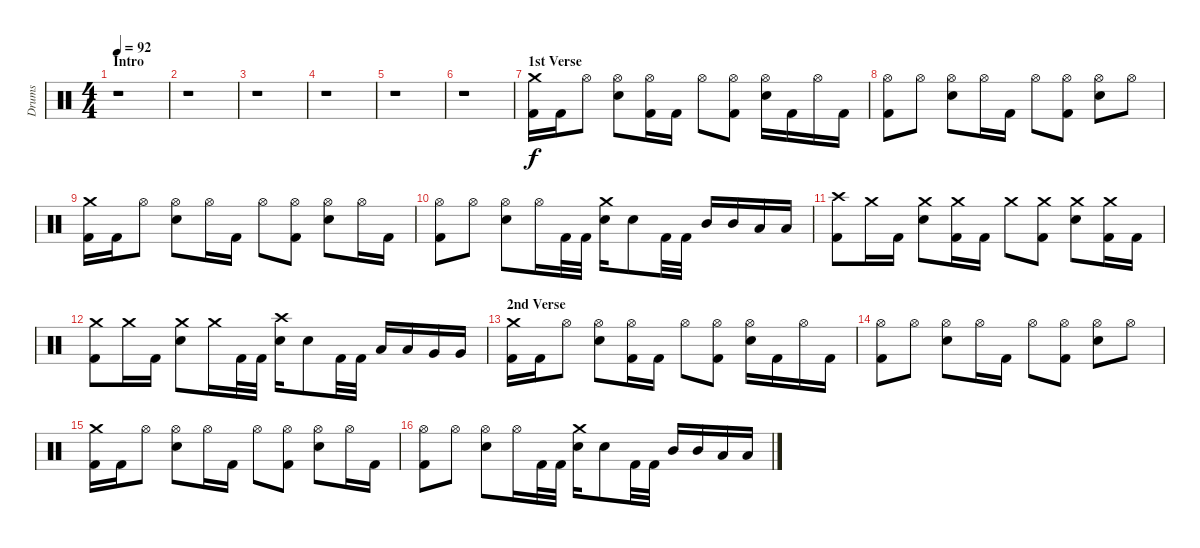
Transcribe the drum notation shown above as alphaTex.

\track ("Drums" "Drums") {instrument percussion}
\staff {score}
\articulation defaults
\ts (4 4)
\section ("" "Intro")
\tempo 92
\clef neutral
\ks c
r.1{dy f} |
r.1 |
r.1 |
r.1 |
r.1 |
r.1 |
\section ("" "1st Verse")
("Kick (hit) 2" "Crash medium (hit)").16 "Kick (hit) 2".16 "Hi-Hat (open)".8 ("Electric Snare (hit)" "Hi-Hat (open)").8 ("Kick (hit) 2" "Hi-Hat (open)").16 "Kick (hit) 2".16 "Hi-Hat (open)".8 ("Kick (hit) 2" "Hi-Hat (open)").8 ("Electric Snare (hit)" "Hi-Hat (open)").16 "Kick (hit) 2".16 "Hi-Hat (open)".16 "Kick (hit) 2".16 |
("Kick (hit) 2" "Hi-Hat (open)").8 "Hi-Hat (open)".8 ("Electric Snare (hit)" "Hi-Hat (open)").8 "Hi-Hat (open)".16 "Kick (hit) 2".16 "Hi-Hat (open)".8 ("Kick (hit) 2" "Hi-Hat (open)").8 ("Electric Snare (hit)" "Hi-Hat (open)").8 "Hi-Hat (open)".8 |
("Kick (hit) 2" "Crash medium (hit)").16 "Kick (hit) 2".16 "Hi-Hat (open)".8 ("Electric Snare (hit)" "Hi-Hat (open)").8 "Hi-Hat (open)".16 "Kick (hit) 2".16 "Hi-Hat (open)".8 ("Kick (hit) 2" "Hi-Hat (open)").8 ("Electric Snare (hit)" "Hi-Hat (open)").8 "Hi-Hat (open)".16 "Kick (hit) 2".16 |
("Kick (hit) 2" "Hi-Hat (open)").8 "Hi-Hat (open)".8 ("Electric Snare (hit)" "Hi-Hat (open)").8 "Hi-Hat (open)".16 "Kick (hit) 2".32 "Kick (hit) 2".32 ("Electric Snare (hit)" "Crash medium (hit)").16 "Electric Snare (hit)".8 "Kick (hit) 2".32 "Kick (hit) 2".32 "Mid Tom (hit)".16 "Mid Tom (hit)".16 "Low Tom (hit)".16 "Low Tom (hit)".16 |
("Kick (hit) 2" "Crash high (hit)").8 "Crash medium (hit)".16 "Kick (hit) 2".16 ("Electric Snare (hit)" "Crash medium (hit)").8 ("Kick (hit) 2" "Crash medium (hit)").16 "Kick (hit) 2".16 "Crash medium (hit)".8 ("Kick (hit) 2" "Crash medium (hit)").8 ("Electric Snare (hit)" "Crash medium (hit)").8 ("Kick (hit) 2" "Crash medium (hit)").16 "Kick (hit) 2".16 |
("Kick (hit) 2" "Crash medium (hit)").8 "Crash medium (hit)".16 "Kick (hit) 2".16 ("Electric Snare (hit)" "Crash medium (hit)").8 "Crash medium (hit)".16 "Kick (hit) 2".32 "Kick (hit) 2".32 ("Electric Snare (hit)" "Crash high (hit)").16 "Electric Snare (hit)".8 "Kick (hit) 2".32 "Kick (hit) 2".32 "Low Tom (hit)".16 "Low Tom (hit)".16 "Very Low Tom (hit)".16 "Very Low Tom (hit)".16 |
\section ("" "2nd Verse")
("Kick (hit) 2" "Crash medium (hit)").16 "Kick (hit) 2".16 "Hi-Hat (open)".8 ("Electric Snare (hit)" "Hi-Hat (open)").8 ("Kick (hit) 2" "Hi-Hat (open)").16 "Kick (hit) 2".16 "Hi-Hat (open)".8 ("Kick (hit) 2" "Hi-Hat (open)").8 ("Electric Snare (hit)" "Hi-Hat (open)").16 "Kick (hit) 2".16 "Hi-Hat (open)".16 "Kick (hit) 2".16 |
("Kick (hit) 2" "Hi-Hat (open)").8 "Hi-Hat (open)".8 ("Electric Snare (hit)" "Hi-Hat (open)").8 "Hi-Hat (open)".16 "Kick (hit) 2".16 "Hi-Hat (open)".8 ("Kick (hit) 2" "Hi-Hat (open)").8 ("Electric Snare (hit)" "Hi-Hat (open)").8 "Hi-Hat (open)".8 |
("Kick (hit) 2" "Crash medium (hit)").16 "Kick (hit) 2".16 "Hi-Hat (open)".8 ("Electric Snare (hit)" "Hi-Hat (open)").8 "Hi-Hat (open)".16 "Kick (hit) 2".16 "Hi-Hat (open)".8 ("Kick (hit) 2" "Hi-Hat (open)").8 ("Electric Snare (hit)" "Hi-Hat (open)").8 "Hi-Hat (open)".16 "Kick (hit) 2".16 |
("Kick (hit) 2" "Hi-Hat (open)").8 "Hi-Hat (open)".8 ("Electric Snare (hit)" "Hi-Hat (open)").8 "Hi-Hat (open)".16 "Kick (hit) 2".32 "Kick (hit) 2".32 ("Electric Snare (hit)" "Crash medium (hit)").16 "Electric Snare (hit)".8 "Kick (hit) 2".32 "Kick (hit) 2".32 "Mid Tom (hit)".16 "Mid Tom (hit)".16 "Low Tom (hit)".16 "Low Tom (hit)".16
